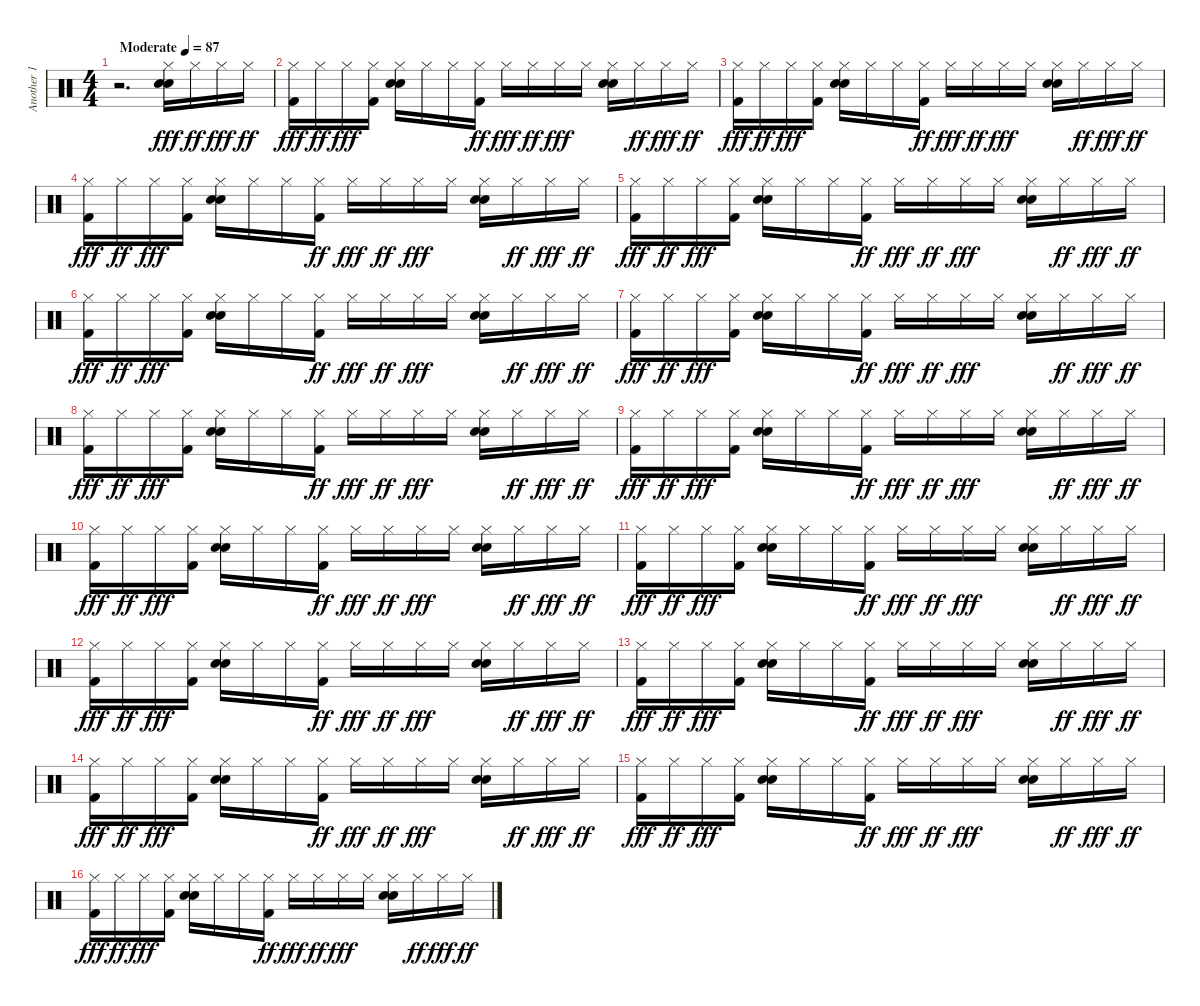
\track ("Another 1 by Ade" "Another 1 ") {instrument percussion}
\staff {score}
\articulation defaults
\ts (4 4)
\tempo (87 "Moderate")
\clef neutral
\ks c
r.2{d dy fff} ("Snare (hit) 2" "Hand Clap (hit)" "Hi-Hat (closed)").16 "Hi-Hat (closed)".16{dy ff} "Hi-Hat (closed)".16{dy fff} "Hi-Hat (closed)".16{dy ff} |
("Kick (hit) 2" "Hi-Hat (closed)").16{dy fff} "Hi-Hat (closed)".16{dy ff} "Hi-Hat (closed)".16{dy fff} ("Kick (hit) 2" "Hi-Hat (closed)").16 ("Snare (hit) 2" "Hand Clap (hit)" "Hi-Hat (closed)").16 "Hi-Hat (closed)".16 "Hi-Hat (closed)".16 ("Kick (hit) 2" "Hi-Hat (closed)").16{dy ff} "Hi-Hat (closed)".16{dy fff} "Hi-Hat (closed)".16{dy ff} "Hi-Hat (closed)".16{dy fff} "Hi-Hat (closed)".16 ("Snare (hit) 2" "Hand Clap (hit)" "Hi-Hat (closed)").16 "Hi-Hat (closed)".16{dy ff} "Hi-Hat (closed)".16{dy fff} "Hi-Hat (closed)".16{dy ff} |
("Kick (hit) 2" "Hi-Hat (closed)").16{dy fff} "Hi-Hat (closed)".16{dy ff} "Hi-Hat (closed)".16{dy fff} ("Kick (hit) 2" "Hi-Hat (closed)").16 ("Snare (hit) 2" "Hand Clap (hit)" "Hi-Hat (closed)").16 "Hi-Hat (closed)".16 "Hi-Hat (closed)".16 ("Kick (hit) 2" "Hi-Hat (closed)").16{dy ff} "Hi-Hat (closed)".16{dy fff} "Hi-Hat (closed)".16{dy ff} "Hi-Hat (closed)".16{dy fff} "Hi-Hat (closed)".16 ("Snare (hit) 2" "Hand Clap (hit)" "Hi-Hat (closed)").16 "Hi-Hat (closed)".16{dy ff} "Hi-Hat (closed)".16{dy fff} "Hi-Hat (closed)".16{dy ff} |
("Kick (hit) 2" "Hi-Hat (closed)").16{dy fff} "Hi-Hat (closed)".16{dy ff} "Hi-Hat (closed)".16{dy fff} ("Kick (hit) 2" "Hi-Hat (closed)").16 ("Snare (hit) 2" "Hand Clap (hit)" "Hi-Hat (closed)").16 "Hi-Hat (closed)".16 "Hi-Hat (closed)".16 ("Kick (hit) 2" "Hi-Hat (closed)").16{dy ff} "Hi-Hat (closed)".16{dy fff} "Hi-Hat (closed)".16{dy ff} "Hi-Hat (closed)".16{dy fff} "Hi-Hat (closed)".16 ("Snare (hit) 2" "Hand Clap (hit)" "Hi-Hat (closed)").16 "Hi-Hat (closed)".16{dy ff} "Hi-Hat (closed)".16{dy fff} "Hi-Hat (closed)".16{dy ff} |
("Kick (hit) 2" "Hi-Hat (closed)").16{dy fff} "Hi-Hat (closed)".16{dy ff} "Hi-Hat (closed)".16{dy fff} ("Kick (hit) 2" "Hi-Hat (closed)").16 ("Snare (hit) 2" "Hand Clap (hit)" "Hi-Hat (closed)").16 "Hi-Hat (closed)".16 "Hi-Hat (closed)".16 ("Kick (hit) 2" "Hi-Hat (closed)").16{dy ff} "Hi-Hat (closed)".16{dy fff} "Hi-Hat (closed)".16{dy ff} "Hi-Hat (closed)".16{dy fff} "Hi-Hat (closed)".16 ("Snare (hit) 2" "Hand Clap (hit)" "Hi-Hat (closed)").16 "Hi-Hat (closed)".16{dy ff} "Hi-Hat (closed)".16{dy fff} "Hi-Hat (closed)".16{dy ff} |
("Kick (hit) 2" "Hi-Hat (closed)").16{dy fff} "Hi-Hat (closed)".16{dy ff} "Hi-Hat (closed)".16{dy fff} ("Kick (hit) 2" "Hi-Hat (closed)").16 ("Snare (hit) 2" "Hand Clap (hit)" "Hi-Hat (closed)").16 "Hi-Hat (closed)".16 "Hi-Hat (closed)".16 ("Kick (hit) 2" "Hi-Hat (closed)").16{dy ff} "Hi-Hat (closed)".16{dy fff} "Hi-Hat (closed)".16{dy ff} "Hi-Hat (closed)".16{dy fff} "Hi-Hat (closed)".16 ("Snare (hit) 2" "Hand Clap (hit)" "Hi-Hat (closed)").16 "Hi-Hat (closed)".16{dy ff} "Hi-Hat (closed)".16{dy fff} "Hi-Hat (closed)".16{dy ff} |
("Kick (hit) 2" "Hi-Hat (closed)").16{dy fff} "Hi-Hat (closed)".16{dy ff} "Hi-Hat (closed)".16{dy fff} ("Kick (hit) 2" "Hi-Hat (closed)").16 ("Snare (hit) 2" "Hand Clap (hit)" "Hi-Hat (closed)").16 "Hi-Hat (closed)".16 "Hi-Hat (closed)".16 ("Kick (hit) 2" "Hi-Hat (closed)").16{dy ff} "Hi-Hat (closed)".16{dy fff} "Hi-Hat (closed)".16{dy ff} "Hi-Hat (closed)".16{dy fff} "Hi-Hat (closed)".16 ("Snare (hit) 2" "Hand Clap (hit)" "Hi-Hat (closed)").16 "Hi-Hat (closed)".16{dy ff} "Hi-Hat (closed)".16{dy fff} "Hi-Hat (closed)".16{dy ff} |
("Kick (hit) 2" "Hi-Hat (closed)").16{dy fff} "Hi-Hat (closed)".16{dy ff} "Hi-Hat (closed)".16{dy fff} ("Kick (hit) 2" "Hi-Hat (closed)").16 ("Snare (hit) 2" "Hand Clap (hit)" "Hi-Hat (closed)").16 "Hi-Hat (closed)".16 "Hi-Hat (closed)".16 ("Kick (hit) 2" "Hi-Hat (closed)").16{dy ff} "Hi-Hat (closed)".16{dy fff} "Hi-Hat (closed)".16{dy ff} "Hi-Hat (closed)".16{dy fff} "Hi-Hat (closed)".16 ("Snare (hit) 2" "Hand Clap (hit)" "Hi-Hat (closed)").16 "Hi-Hat (closed)".16{dy ff} "Hi-Hat (closed)".16{dy fff} "Hi-Hat (closed)".16{dy ff} |
("Kick (hit) 2" "Hi-Hat (closed)").16{dy fff} "Hi-Hat (closed)".16{dy ff} "Hi-Hat (closed)".16{dy fff} ("Kick (hit) 2" "Hi-Hat (closed)").16 ("Snare (hit) 2" "Hand Clap (hit)" "Hi-Hat (closed)").16 "Hi-Hat (closed)".16 "Hi-Hat (closed)".16 ("Kick (hit) 2" "Hi-Hat (closed)").16{dy ff} "Hi-Hat (closed)".16{dy fff} "Hi-Hat (closed)".16{dy ff} "Hi-Hat (closed)".16{dy fff} "Hi-Hat (closed)".16 ("Snare (hit) 2" "Hand Clap (hit)" "Hi-Hat (closed)").16 "Hi-Hat (closed)".16{dy ff} "Hi-Hat (closed)".16{dy fff} "Hi-Hat (closed)".16{dy ff} |
("Kick (hit) 2" "Hi-Hat (closed)").16{dy fff} "Hi-Hat (closed)".16{dy ff} "Hi-Hat (closed)".16{dy fff} ("Kick (hit) 2" "Hi-Hat (closed)").16 ("Snare (hit) 2" "Hand Clap (hit)" "Hi-Hat (closed)").16 "Hi-Hat (closed)".16 "Hi-Hat (closed)".16 ("Kick (hit) 2" "Hi-Hat (closed)").16{dy ff} "Hi-Hat (closed)".16{dy fff} "Hi-Hat (closed)".16{dy ff} "Hi-Hat (closed)".16{dy fff} "Hi-Hat (closed)".16 ("Snare (hit) 2" "Hand Clap (hit)" "Hi-Hat (closed)").16 "Hi-Hat (closed)".16{dy ff} "Hi-Hat (closed)".16{dy fff} "Hi-Hat (closed)".16{dy ff} |
("Kick (hit) 2" "Hi-Hat (closed)").16{dy fff} "Hi-Hat (closed)".16{dy ff} "Hi-Hat (closed)".16{dy fff} ("Kick (hit) 2" "Hi-Hat (closed)").16 ("Snare (hit) 2" "Hand Clap (hit)" "Hi-Hat (closed)").16 "Hi-Hat (closed)".16 "Hi-Hat (closed)".16 ("Kick (hit) 2" "Hi-Hat (closed)").16{dy ff} "Hi-Hat (closed)".16{dy fff} "Hi-Hat (closed)".16{dy ff} "Hi-Hat (closed)".16{dy fff} "Hi-Hat (closed)".16 ("Snare (hit) 2" "Hand Clap (hit)" "Hi-Hat (closed)").16 "Hi-Hat (closed)".16{dy ff} "Hi-Hat (closed)".16{dy fff} "Hi-Hat (closed)".16{dy ff} |
("Kick (hit) 2" "Hi-Hat (closed)").16{dy fff} "Hi-Hat (closed)".16{dy ff} "Hi-Hat (closed)".16{dy fff} ("Kick (hit) 2" "Hi-Hat (closed)").16 ("Snare (hit) 2" "Hand Clap (hit)" "Hi-Hat (closed)").16 "Hi-Hat (closed)".16 "Hi-Hat (closed)".16 ("Kick (hit) 2" "Hi-Hat (closed)").16{dy ff} "Hi-Hat (closed)".16{dy fff} "Hi-Hat (closed)".16{dy ff} "Hi-Hat (closed)".16{dy fff} "Hi-Hat (closed)".16 ("Snare (hit) 2" "Hand Clap (hit)" "Hi-Hat (closed)").16 "Hi-Hat (closed)".16{dy ff} "Hi-Hat (closed)".16{dy fff} "Hi-Hat (closed)".16{dy ff} |
("Kick (hit) 2" "Hi-Hat (closed)").16{dy fff} "Hi-Hat (closed)".16{dy ff} "Hi-Hat (closed)".16{dy fff} ("Kick (hit) 2" "Hi-Hat (closed)").16 ("Snare (hit) 2" "Hand Clap (hit)" "Hi-Hat (closed)").16 "Hi-Hat (closed)".16 "Hi-Hat (closed)".16 ("Kick (hit) 2" "Hi-Hat (closed)").16{dy ff} "Hi-Hat (closed)".16{dy fff} "Hi-Hat (closed)".16{dy ff} "Hi-Hat (closed)".16{dy fff} "Hi-Hat (closed)".16 ("Snare (hit) 2" "Hand Clap (hit)" "Hi-Hat (closed)").16 "Hi-Hat (closed)".16{dy ff} "Hi-Hat (closed)".16{dy fff} "Hi-Hat (closed)".16{dy ff} |
("Kick (hit) 2" "Hi-Hat (closed)").16{dy fff} "Hi-Hat (closed)".16{dy ff} "Hi-Hat (closed)".16{dy fff} ("Kick (hit) 2" "Hi-Hat (closed)").16 ("Snare (hit) 2" "Hand Clap (hit)" "Hi-Hat (closed)").16 "Hi-Hat (closed)".16 "Hi-Hat (closed)".16 ("Kick (hit) 2" "Hi-Hat (closed)").16{dy ff} "Hi-Hat (closed)".16{dy fff} "Hi-Hat (closed)".16{dy ff} "Hi-Hat (closed)".16{dy fff} "Hi-Hat (closed)".16 ("Snare (hit) 2" "Hand Clap (hit)" "Hi-Hat (closed)").16 "Hi-Hat (closed)".16{dy ff} "Hi-Hat (closed)".16{dy fff} "Hi-Hat (closed)".16{dy ff} |
("Kick (hit) 2" "Hi-Hat (closed)").16{dy fff} "Hi-Hat (closed)".16{dy ff} "Hi-Hat (closed)".16{dy fff} ("Kick (hit) 2" "Hi-Hat (closed)").16 ("Snare (hit) 2" "Hand Clap (hit)" "Hi-Hat (closed)").16 "Hi-Hat (closed)".16 "Hi-Hat (closed)".16 ("Kick (hit) 2" "Hi-Hat (closed)").16{dy ff} "Hi-Hat (closed)".16{dy fff} "Hi-Hat (closed)".16{dy ff} "Hi-Hat (closed)".16{dy fff} "Hi-Hat (closed)".16 ("Snare (hit) 2" "Hand Clap (hit)" "Hi-Hat (closed)").16 "Hi-Hat (closed)".16{dy ff} "Hi-Hat (closed)".16{dy fff} "Hi-Hat (closed)".16{dy ff} |
("Kick (hit) 2" "Hi-Hat (closed)").16{dy fff} "Hi-Hat (closed)".16{dy ff} "Hi-Hat (closed)".16{dy fff} ("Kick (hit) 2" "Hi-Hat (closed)").16 ("Snare (hit) 2" "Hand Clap (hit)" "Hi-Hat (closed)").16 "Hi-Hat (closed)".16 "Hi-Hat (closed)".16 ("Kick (hit) 2" "Hi-Hat (closed)").16{dy ff} "Hi-Hat (closed)".16{dy fff} "Hi-Hat (closed)".16{dy ff} "Hi-Hat (closed)".16{dy fff} "Hi-Hat (closed)".16 ("Snare (hit) 2" "Hand Clap (hit)" "Hi-Hat (closed)").16 "Hi-Hat (closed)".16{dy ff} "Hi-Hat (closed)".16{dy fff} "Hi-Hat (closed)".16{dy ff}
